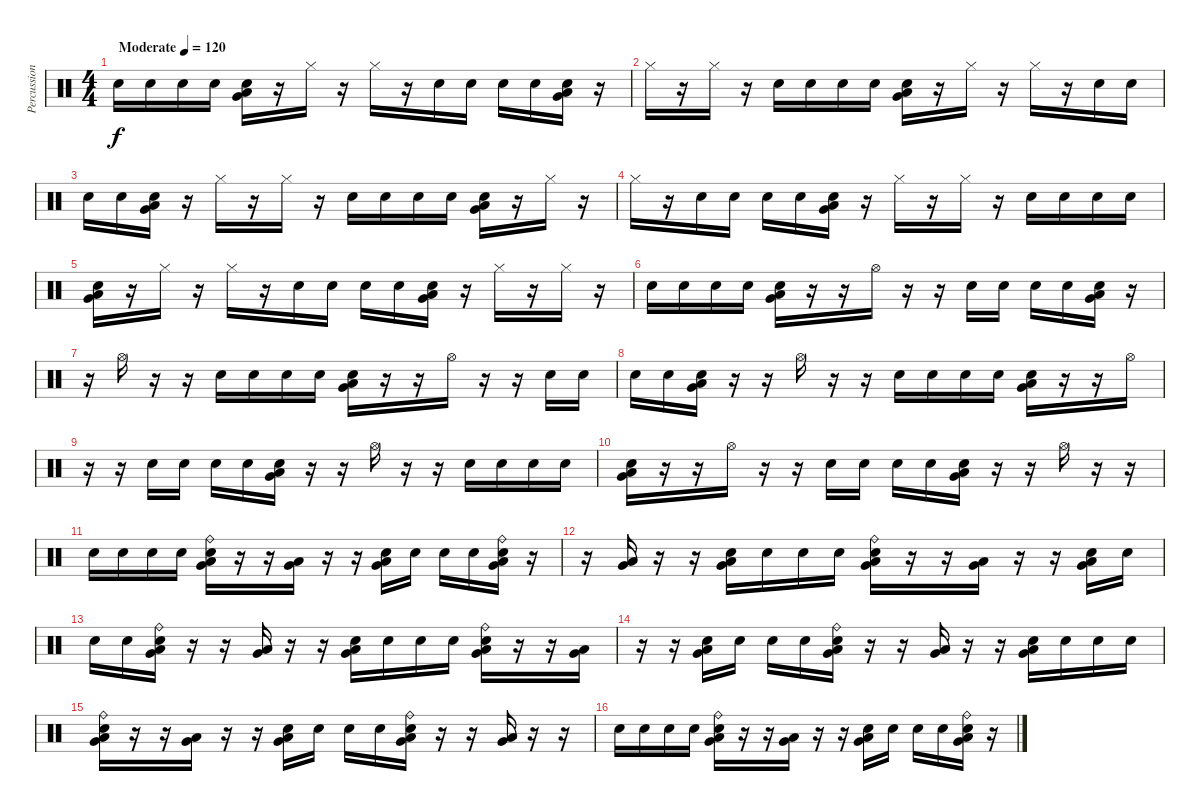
\track ("Percussion" "Percussion") {instrument percussion}
\staff {score}
\articulation defaults
\ts (4 4)
\tempo (120 "Moderate")
\clef neutral
\ks c "Snare (hit) 2".16{dy f} "Snare (hit) 2".16 "Snare (hit) 2".16 "Snare (hit) 2".16
("Very Low Tom (hit)" "Low Floor Tom (hit)" "Snare (hit) 2").16 r.16 "Hi-Hat (closed)".16 r.16 "Hi-Hat (closed)".16 r.16 "Snare (hit) 2".16 "Snare (hit) 2".16 "Snare (hit) 2".16 "Snare (hit) 2".16 ("Very Low Tom (hit)" "Low Floor Tom (hit)" "Snare (hit) 2").16 r.16 |
"Hi-Hat (closed)".16 r.16 "Hi-Hat (closed)".16 r.16 "Snare (hit) 2".16 "Snare (hit) 2".16 "Snare (hit) 2".16 "Snare (hit) 2".16 ("Very Low Tom (hit)" "Low Floor Tom (hit)" "Snare (hit) 2").16 r.16 "Hi-Hat (closed)".16 r.16 "Hi-Hat (closed)".16 r.16 "Snare (hit) 2".16 "Snare (hit) 2".16 |
"Snare (hit) 2".16 "Snare (hit) 2".16 ("Very Low Tom (hit)" "Low Floor Tom (hit)" "Snare (hit) 2").16 r.16 "Hi-Hat (closed)".16 r.16 "Hi-Hat (closed)".16 r.16 "Snare (hit) 2".16 "Snare (hit) 2".16 "Snare (hit) 2".16 "Snare (hit) 2".16 ("Very Low Tom (hit)" "Low Floor Tom (hit)" "Snare (hit) 2").16 r.16 "Hi-Hat (closed)".16 r.16 |
"Hi-Hat (closed)".16 r.16 "Snare (hit) 2".16 "Snare (hit) 2".16 "Snare (hit) 2".16 "Snare (hit) 2".16 ("Very Low Tom (hit)" "Low Floor Tom (hit)" "Snare (hit) 2").16 r.16 "Hi-Hat (closed)".16 r.16 "Hi-Hat (closed)".16 r.16 "Snare (hit) 2".16 "Snare (hit) 2".16 "Snare (hit) 2".16 "Snare (hit) 2".16 |
("Very Low Tom (hit)" "Low Floor Tom (hit)" "Snare (hit) 2").16 r.16 "Hi-Hat (closed)".16 r.16 "Hi-Hat (closed)".16 r.16 "Snare (hit) 2".16 "Snare (hit) 2".16 "Snare (hit) 2".16 "Snare (hit) 2".16 ("Very Low Tom (hit)" "Low Floor Tom (hit)" "Snare (hit) 2").16 r.16 "Hi-Hat (closed)".16 r.16 "Hi-Hat (closed)".16 r.16 |
"Snare (hit) 2".16 "Snare (hit) 2".16 "Snare (hit) 2".16 "Snare (hit) 2".16 ("Very Low Tom (hit)" "Low Floor Tom (hit)" "Snare (hit) 2").16 r.16 r.16 "Hi-Hat (open)".16 r.16 r.16 "Snare (hit) 2".16 "Snare (hit) 2".16 "Snare (hit) 2".16 "Snare (hit) 2".16 ("Very Low Tom (hit)" "Low Floor Tom (hit)" "Snare (hit) 2").16 r.16 |
r.16 "Hi-Hat (open)".16 r.16 r.16 "Snare (hit) 2".16 "Snare (hit) 2".16 "Snare (hit) 2".16 "Snare (hit) 2".16 ("Very Low Tom (hit)" "Low Floor Tom (hit)" "Snare (hit) 2").16 r.16 r.16 "Hi-Hat (open)".16 r.16 r.16 "Snare (hit) 2".16 "Snare (hit) 2".16 |
"Snare (hit) 2".16 "Snare (hit) 2".16 ("Very Low Tom (hit)" "Low Floor Tom (hit)" "Snare (hit) 2").16 r.16 r.16 "Hi-Hat (open)".16 r.16 r.16 "Snare (hit) 2".16 "Snare (hit) 2".16 "Snare (hit) 2".16 "Snare (hit) 2".16 ("Very Low Tom (hit)" "Low Floor Tom (hit)" "Snare (hit) 2").16 r.16 r.16 "Hi-Hat (open)".16 |
r.16 r.16 "Snare (hit) 2".16 "Snare (hit) 2".16 "Snare (hit) 2".16 "Snare (hit) 2".16 ("Very Low Tom (hit)" "Low Floor Tom (hit)" "Snare (hit) 2").16 r.16 r.16 "Hi-Hat (open)".16 r.16 r.16 "Snare (hit) 2".16 "Snare (hit) 2".16 "Snare (hit) 2".16 "Snare (hit) 2".16 |
("Very Low Tom (hit)" "Low Floor Tom (hit)" "Snare (hit) 2").16 r.16 r.16 "Hi-Hat (open)".16 r.16 r.16 "Snare (hit) 2".16 "Snare (hit) 2".16 "Snare (hit) 2".16 "Snare (hit) 2".16 ("Very Low Tom (hit)" "Low Floor Tom (hit)" "Snare (hit) 2").16 r.16 r.16 "Hi-Hat (open)".16 r.16 r.16 |
"Snare (hit) 2".16 "Snare (hit) 2".16 "Snare (hit) 2".16 "Snare (hit) 2".16 ("Ride (bell)" "Very Low Tom (hit)" "Low Floor Tom (hit)" "Snare (hit) 2").16 r.16 r.16 ("Very Low Tom (hit)" "Low Floor Tom (hit)").16 r.16 r.16 ("Very Low Tom (hit)" "Low Floor Tom (hit)" "Snare (hit) 2").16 "Snare (hit) 2".16 "Snare (hit) 2".16 "Snare (hit) 2".16 ("Ride (bell)" "Very Low Tom (hit)" "Low Floor Tom (hit)" "Snare (hit) 2").16 r.16 |
r.16 ("Very Low Tom (hit)" "Low Floor Tom (hit)").16 r.16 r.16 ("Very Low Tom (hit)" "Low Floor Tom (hit)" "Snare (hit) 2").16 "Snare (hit) 2".16 "Snare (hit) 2".16 "Snare (hit) 2".16 ("Ride (bell)" "Very Low Tom (hit)" "Low Floor Tom (hit)" "Snare (hit) 2").16 r.16 r.16 ("Very Low Tom (hit)" "Low Floor Tom (hit)").16 r.16 r.16 ("Very Low Tom (hit)" "Low Floor Tom (hit)" "Snare (hit) 2").16 "Snare (hit) 2".16 |
"Snare (hit) 2".16 "Snare (hit) 2".16 ("Ride (bell)" "Very Low Tom (hit)" "Low Floor Tom (hit)" "Snare (hit) 2").16 r.16 r.16 ("Very Low Tom (hit)" "Low Floor Tom (hit)").16 r.16 r.16 ("Very Low Tom (hit)" "Low Floor Tom (hit)" "Snare (hit) 2").16 "Snare (hit) 2".16 "Snare (hit) 2".16 "Snare (hit) 2".16 ("Ride (bell)" "Very Low Tom (hit)" "Low Floor Tom (hit)" "Snare (hit) 2").16 r.16 r.16 ("Very Low Tom (hit)" "Low Floor Tom (hit)").16 |
r.16 r.16 ("Very Low Tom (hit)" "Low Floor Tom (hit)" "Snare (hit) 2").16 "Snare (hit) 2".16 "Snare (hit) 2".16 "Snare (hit) 2".16 ("Ride (bell)" "Very Low Tom (hit)" "Low Floor Tom (hit)" "Snare (hit) 2").16 r.16 r.16 ("Very Low Tom (hit)" "Low Floor Tom (hit)").16 r.16 r.16 ("Very Low Tom (hit)" "Low Floor Tom (hit)" "Snare (hit) 2").16 "Snare (hit) 2".16 "Snare (hit) 2".16 "Snare (hit) 2".16 |
("Ride (bell)" "Very Low Tom (hit)" "Low Floor Tom (hit)" "Snare (hit) 2").16 r.16 r.16 ("Very Low Tom (hit)" "Low Floor Tom (hit)").16 r.16 r.16 ("Very Low Tom (hit)" "Low Floor Tom (hit)" "Snare (hit) 2").16 "Snare (hit) 2".16 "Snare (hit) 2".16 "Snare (hit) 2".16 ("Ride (bell)" "Very Low Tom (hit)" "Low Floor Tom (hit)" "Snare (hit) 2").16 r.16 r.16 ("Very Low Tom (hit)" "Low Floor Tom (hit)").16 r.16 r.16 |
"Snare (hit) 2".16 "Snare (hit) 2".16 "Snare (hit) 2".16 "Snare (hit) 2".16 ("Ride (bell)" "Very Low Tom (hit)" "Low Floor Tom (hit)" "Snare (hit) 2").16 r.16 r.16 ("Very Low Tom (hit)" "Low Floor Tom (hit)").16 r.16 r.16 ("Very Low Tom (hit)" "Low Floor Tom (hit)" "Snare (hit) 2").16 "Snare (hit) 2".16 "Snare (hit) 2".16 "Snare (hit) 2".16 ("Ride (bell)" "Very Low Tom (hit)" "Low Floor Tom (hit)" "Snare (hit) 2").16 r.16
